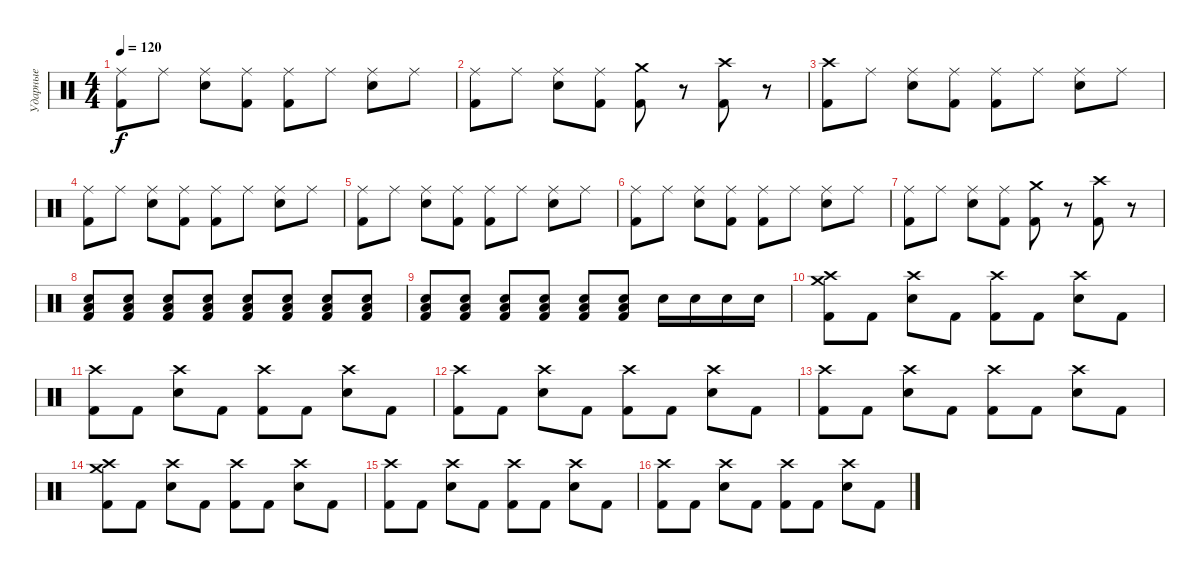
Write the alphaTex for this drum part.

\track ("Ударные" "Ударные") {instrument percussion}
\staff {score}
\articulation defaults
\ts (4 4)
\tempo 120
\clef neutral
\ks c
("Ride (middle)" "Kick (hit) 2").8{dy f} "Ride (middle)".8 ("Ride (middle)" "Electric Snare (hit)").8 ("Ride (middle)" "Kick (hit) 2").8 ("Ride (middle)" "Kick (hit) 2").8 "Ride (middle)".8 ("Ride (middle)" "Electric Snare (hit)").8 "Ride (middle)".8 |
("Ride (middle)" "Kick (hit) 2").8 "Ride (middle)".8 ("Ride (middle)" "Electric Snare (hit)").8 ("Ride (middle)" "Kick (hit) 2").8 ("Crash medium (hit)" "Kick (hit) 2").8 r.8 ("Crash high (hit)" "Kick (hit) 2").8 r.8 |
("Crash high (hit)" "Kick (hit) 2").8 "Ride (middle)".8 ("Ride (middle)" "Electric Snare (hit)").8 ("Ride (middle)" "Kick (hit) 2").8 ("Ride (middle)" "Kick (hit) 2").8 "Ride (middle)".8 ("Ride (middle)" "Electric Snare (hit)").8 "Ride (middle)".8 |
("Ride (middle)" "Kick (hit) 2").8 "Ride (middle)".8 ("Ride (middle)" "Electric Snare (hit)").8 ("Ride (middle)" "Kick (hit) 2").8 ("Ride (middle)" "Kick (hit) 2").8 "Ride (middle)".8 ("Ride (middle)" "Electric Snare (hit)").8 "Ride (middle)".8 |
("Ride (middle)" "Kick (hit) 2").8 "Ride (middle)".8 ("Ride (middle)" "Electric Snare (hit)").8 ("Ride (middle)" "Kick (hit) 2").8 ("Ride (middle)" "Kick (hit) 2").8 "Ride (middle)".8 ("Ride (middle)" "Electric Snare (hit)").8 "Ride (middle)".8 |
("Ride (middle)" "Kick (hit) 2").8 "Ride (middle)".8 ("Ride (middle)" "Electric Snare (hit)").8 ("Ride (middle)" "Kick (hit) 2").8 ("Ride (middle)" "Kick (hit) 2").8 "Ride (middle)".8 ("Ride (middle)" "Electric Snare (hit)").8 "Ride (middle)".8 |
("Ride (middle)" "Kick (hit) 2").8 "Ride (middle)".8 ("Ride (middle)" "Electric Snare (hit)").8 ("Ride (middle)" "Kick (hit) 2").8 ("Crash medium (hit)" "Kick (hit) 2").8 r.8 ("Crash high (hit)" "Kick (hit) 2").8 r.8 |
("Low Tom (hit)" "Electric Snare (hit)" "Kick (hit) 2").8 ("Low Tom (hit)" "Electric Snare (hit)" "Kick (hit) 2").8 ("Low Tom (hit)" "Electric Snare (hit)" "Kick (hit) 2").8 ("Low Tom (hit)" "Electric Snare (hit)" "Kick (hit) 2").8 ("Low Tom (hit)" "Electric Snare (hit)" "Kick (hit) 2").8 ("Low Tom (hit)" "Electric Snare (hit)" "Kick (hit) 2").8 ("Low Tom (hit)" "Electric Snare (hit)" "Kick (hit) 2").8 ("Low Tom (hit)" "Electric Snare (hit)" "Kick (hit) 2").8 |
("Low Tom (hit)" "Electric Snare (hit)" "Kick (hit) 2").8 ("Low Tom (hit)" "Electric Snare (hit)" "Kick (hit) 2").8 ("Low Tom (hit)" "Electric Snare (hit)" "Kick (hit) 2").8 ("Low Tom (hit)" "Electric Snare (hit)" "Kick (hit) 2").8 ("Low Tom (hit)" "Electric Snare (hit)" "Kick (hit) 2").8 ("Low Tom (hit)" "Electric Snare (hit)" "Kick (hit) 2").8 "Electric Snare (hit)".16 "Electric Snare (hit)".16 "Electric Snare (hit)".16 "Electric Snare (hit)".16 |
("Crash medium (hit)" "Crash high (hit)" "Kick (hit) 2").8 "Kick (hit) 2".8 ("Crash high (hit)" "Electric Snare (hit)").8 "Kick (hit) 2".8 ("Crash high (hit)" "Kick (hit) 2").8 "Kick (hit) 2".8 ("Crash high (hit)" "Electric Snare (hit)").8 "Kick (hit) 2".8 |
("Crash high (hit)" "Kick (hit) 2").8 "Kick (hit) 2".8 ("Crash high (hit)" "Electric Snare (hit)").8 "Kick (hit) 2".8 ("Crash high (hit)" "Kick (hit) 2").8 "Kick (hit) 2".8 ("Crash high (hit)" "Electric Snare (hit)").8 "Kick (hit) 2".8 |
("Crash high (hit)" "Kick (hit) 2").8 "Kick (hit) 2".8 ("Crash high (hit)" "Electric Snare (hit)").8 "Kick (hit) 2".8 ("Crash high (hit)" "Kick (hit) 2").8 "Kick (hit) 2".8 ("Crash high (hit)" "Electric Snare (hit)").8 "Kick (hit) 2".8 |
("Crash high (hit)" "Kick (hit) 2").8 "Kick (hit) 2".8 ("Crash high (hit)" "Electric Snare (hit)").8 "Kick (hit) 2".8 ("Crash high (hit)" "Kick (hit) 2").8 "Kick (hit) 2".8 ("Crash high (hit)" "Electric Snare (hit)").8 "Kick (hit) 2".8 |
("Crash medium (hit)" "Crash high (hit)" "Kick (hit) 2").8 "Kick (hit) 2".8 ("Crash high (hit)" "Electric Snare (hit)").8 "Kick (hit) 2".8 ("Crash high (hit)" "Kick (hit) 2").8 "Kick (hit) 2".8 ("Crash high (hit)" "Electric Snare (hit)").8 "Kick (hit) 2".8 |
("Crash high (hit)" "Kick (hit) 2").8 "Kick (hit) 2".8 ("Crash high (hit)" "Electric Snare (hit)").8 "Kick (hit) 2".8 ("Crash high (hit)" "Kick (hit) 2").8 "Kick (hit) 2".8 ("Crash high (hit)" "Electric Snare (hit)").8 "Kick (hit) 2".8 |
("Crash high (hit)" "Kick (hit) 2").8 "Kick (hit) 2".8 ("Crash high (hit)" "Electric Snare (hit)").8 "Kick (hit) 2".8 ("Crash high (hit)" "Kick (hit) 2").8 "Kick (hit) 2".8 ("Crash high (hit)" "Electric Snare (hit)").8 "Kick (hit) 2".8
